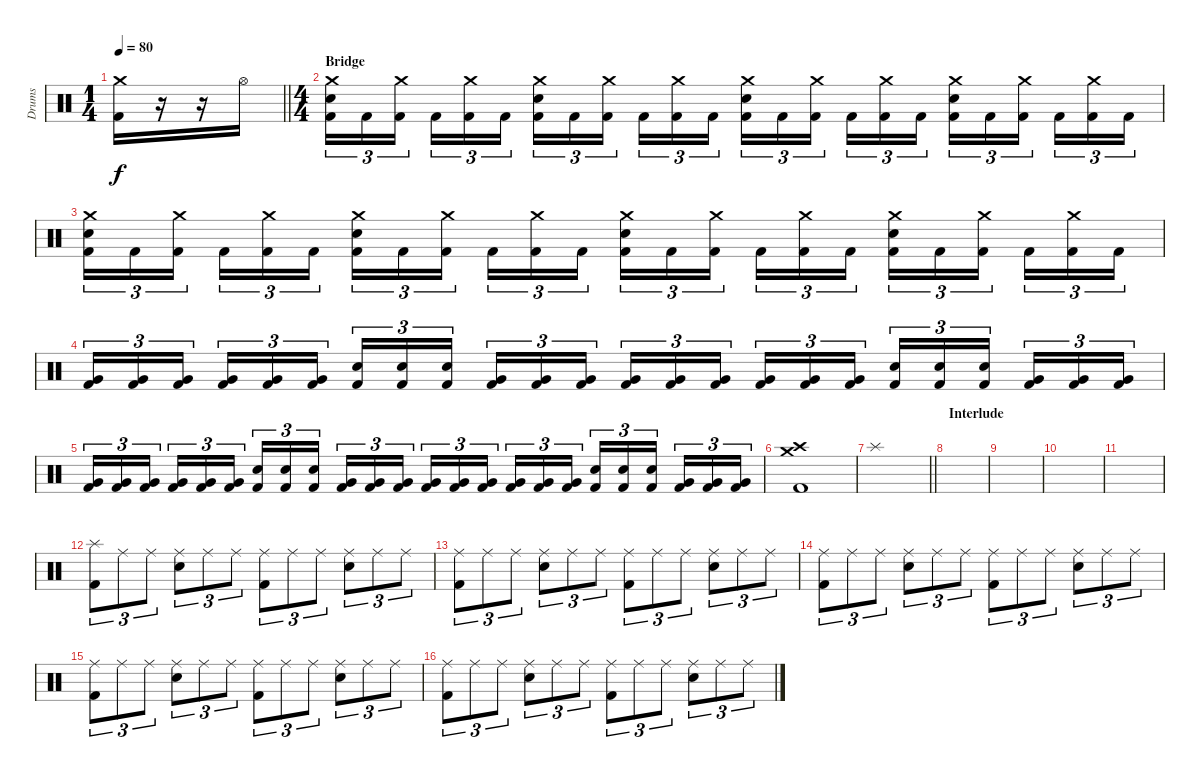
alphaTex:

\track ("Drums" "Drums") {instrument percussion}
\staff {score}
\articulation defaults
\ts (1 4)
\tempo 80
\clef neutral
\barLineRight lightlight
\ks c
("Crash medium (hit)" "Kick (hit) 2").16{dy f} r.16 r.16 "Hi-Hat (open)".16 |
\ts (4 4)
\section ("" "Bridge")
("Crash medium (hit)" "Electric Snare (hit)" "Kick (hit) 2").16{tu (3 2)} "Kick (hit) 2".16{tu (3 2)} ("Crash medium (hit)" "Kick (hit) 2").16{tu (3 2) beam splitsecondary} "Kick (hit) 2".16{tu (3 2)} ("Crash medium (hit)" "Kick (hit) 2").16{tu (3 2)} "Kick (hit) 2".16{tu (3 2)} ("Crash medium (hit)" "Electric Snare (hit)" "Kick (hit) 2").16{tu (3 2)} "Kick (hit) 2".16{tu (3 2)} ("Crash medium (hit)" "Kick (hit) 2").16{tu (3 2) beam splitsecondary} "Kick (hit) 2".16{tu (3 2)} ("Crash medium (hit)" "Kick (hit) 2").16{tu (3 2)} "Kick (hit) 2".16{tu (3 2)} ("Crash medium (hit)" "Electric Snare (hit)" "Kick (hit) 2").16{tu (3 2)} "Kick (hit) 2".16{tu (3 2)} ("Crash medium (hit)" "Kick (hit) 2").16{tu (3 2) beam splitsecondary} "Kick (hit) 2".16{tu (3 2)} ("Crash medium (hit)" "Kick (hit) 2").16{tu (3 2)} "Kick (hit) 2".16{tu (3 2)} ("Crash medium (hit)" "Electric Snare (hit)" "Kick (hit) 2").16{tu (3 2)} "Kick (hit) 2".16{tu (3 2)} ("Crash medium (hit)" "Kick (hit) 2").16{tu (3 2) beam splitsecondary} "Kick (hit) 2".16{tu (3 2)} ("Crash medium (hit)" "Kick (hit) 2").16{tu (3 2)} "Kick (hit) 2".16{tu (3 2)} |
("Crash medium (hit)" "Electric Snare (hit)" "Kick (hit) 2").16{tu (3 2)} "Kick (hit) 2".16{tu (3 2)} ("Crash medium (hit)" "Kick (hit) 2").16{tu (3 2) beam splitsecondary} "Kick (hit) 2".16{tu (3 2)} ("Crash medium (hit)" "Kick (hit) 2").16{tu (3 2)} "Kick (hit) 2".16{tu (3 2)} ("Crash medium (hit)" "Electric Snare (hit)" "Kick (hit) 2").16{tu (3 2)} "Kick (hit) 2".16{tu (3 2)} ("Crash medium (hit)" "Kick (hit) 2").16{tu (3 2) beam splitsecondary} "Kick (hit) 2".16{tu (3 2)} ("Crash medium (hit)" "Kick (hit) 2").16{tu (3 2)} "Kick (hit) 2".16{tu (3 2)} ("Crash medium (hit)" "Electric Snare (hit)" "Kick (hit) 2").16{tu (3 2)} "Kick (hit) 2".16{tu (3 2)} ("Crash medium (hit)" "Kick (hit) 2").16{tu (3 2) beam splitsecondary} "Kick (hit) 2".16{tu (3 2)} ("Crash medium (hit)" "Kick (hit) 2").16{tu (3 2)} "Kick (hit) 2".16{tu (3 2)} ("Crash medium (hit)" "Electric Snare (hit)" "Kick (hit) 2").16{tu (3 2)} "Kick (hit) 2".16{tu (3 2)} ("Crash medium (hit)" "Kick (hit) 2").16{tu (3 2) beam splitsecondary} "Kick (hit) 2".16{tu (3 2)} ("Crash medium (hit)" "Kick (hit) 2").16{tu (3 2)} "Kick (hit) 2".16{tu (3 2)} |
("Very Low Tom (hit)" "Kick (hit) 2").16{tu (3 2)} ("Very Low Tom (hit)" "Kick (hit) 2").16{tu (3 2)} ("Very Low Tom (hit)" "Kick (hit) 2").16{tu (3 2) beam splitsecondary} ("Very Low Tom (hit)" "Kick (hit) 2").16{tu (3 2)} ("Very Low Tom (hit)" "Kick (hit) 2").16{tu (3 2)} ("Very Low Tom (hit)" "Kick (hit) 2").16{tu (3 2)} ("Electric Snare (hit)" "Kick (hit) 2").16{tu (3 2)} ("Electric Snare (hit)" "Kick (hit) 2").16{tu (3 2)} ("Electric Snare (hit)" "Kick (hit) 2").16{tu (3 2) beam splitsecondary} ("Very Low Tom (hit)" "Kick (hit) 2").16{tu (3 2)} ("Very Low Tom (hit)" "Kick (hit) 2").16{tu (3 2)} ("Very Low Tom (hit)" "Kick (hit) 2").16{tu (3 2)} ("Very Low Tom (hit)" "Kick (hit) 2").16{tu (3 2)} ("Very Low Tom (hit)" "Kick (hit) 2").16{tu (3 2)} ("Very Low Tom (hit)" "Kick (hit) 2").16{tu (3 2) beam splitsecondary} ("Very Low Tom (hit)" "Kick (hit) 2").16{tu (3 2)} ("Very Low Tom (hit)" "Kick (hit) 2").16{tu (3 2)} ("Very Low Tom (hit)" "Kick (hit) 2").16{tu (3 2)} ("Electric Snare (hit)" "Kick (hit) 2").16{tu (3 2)} ("Electric Snare (hit)" "Kick (hit) 2").16{tu (3 2)} ("Electric Snare (hit)" "Kick (hit) 2").16{tu (3 2) beam splitsecondary} ("Very Low Tom (hit)" "Kick (hit) 2").16{tu (3 2)} ("Very Low Tom (hit)" "Kick (hit) 2").16{tu (3 2)} ("Very Low Tom (hit)" "Kick (hit) 2").16{tu (3 2)} |
("Very Low Tom (hit)" "Kick (hit) 2").16{tu (3 2)} ("Very Low Tom (hit)" "Kick (hit) 2").16{tu (3 2)} ("Very Low Tom (hit)" "Kick (hit) 2").16{tu (3 2) beam splitsecondary} ("Very Low Tom (hit)" "Kick (hit) 2").16{tu (3 2)} ("Very Low Tom (hit)" "Kick (hit) 2").16{tu (3 2)} ("Very Low Tom (hit)" "Kick (hit) 2").16{tu (3 2)} ("Electric Snare (hit)" "Kick (hit) 2").16{tu (3 2)} ("Electric Snare (hit)" "Kick (hit) 2").16{tu (3 2)} ("Electric Snare (hit)" "Kick (hit) 2").16{tu (3 2) beam splitsecondary} ("Very Low Tom (hit)" "Kick (hit) 2").16{tu (3 2)} ("Very Low Tom (hit)" "Kick (hit) 2").16{tu (3 2)} ("Very Low Tom (hit)" "Kick (hit) 2").16{tu (3 2)} ("Very Low Tom (hit)" "Kick (hit) 2").16{tu (3 2)} ("Very Low Tom (hit)" "Kick (hit) 2").16{tu (3 2)} ("Very Low Tom (hit)" "Kick (hit) 2").16{tu (3 2) beam splitsecondary} ("Very Low Tom (hit)" "Kick (hit) 2").16{tu (3 2)} ("Very Low Tom (hit)" "Kick (hit) 2").16{tu (3 2)} ("Very Low Tom (hit)" "Kick (hit) 2").16{tu (3 2)} ("Electric Snare (hit)" "Kick (hit) 2").16{tu (3 2)} ("Electric Snare (hit)" "Kick (hit) 2").16{tu (3 2)} ("Electric Snare (hit)" "Kick (hit) 2").16{tu (3 2) beam splitsecondary} ("Very Low Tom (hit)" "Kick (hit) 2").16{tu (3 2)} ("Very Low Tom (hit)" "Kick (hit) 2").16{tu (3 2)} ("Very Low Tom (hit)" "Kick (hit) 2").16{tu (3 2)} |
("Crash medium (hit)" "Crash high (hit)" "Kick (hit) 2").1 |
\barLineRight lightlight "Splash (hit)".1
|
\section ("" "Interlude")
|
|
|
|
("Splash (hit)" "Kick (hit) 2").8{tu (3 2)} "Ride (middle)".8{tu (3 2)} "Ride (middle)".8{tu (3 2)} ("Ride (middle)" "Electric Snare (hit)").8{tu (3 2)} "Ride (middle)".8{tu (3 2)} "Ride (middle)".8{tu (3 2)} ("Ride (middle)" "Kick (hit) 2").8{tu (3 2)} "Ride (middle)".8{tu (3 2)} "Ride (middle)".8{tu (3 2)} ("Ride (middle)" "Electric Snare (hit)").8{tu (3 2)} "Ride (middle)".8{tu (3 2)} "Ride (middle)".8{tu (3 2)} |
("Ride (middle)" "Kick (hit) 2").8{tu (3 2)} "Ride (middle)".8{tu (3 2)} "Ride (middle)".8{tu (3 2)} ("Ride (middle)" "Electric Snare (hit)").8{tu (3 2)} "Ride (middle)".8{tu (3 2)} "Ride (middle)".8{tu (3 2)} ("Ride (middle)" "Kick (hit) 2").8{tu (3 2)} "Ride (middle)".8{tu (3 2)} "Ride (middle)".8{tu (3 2)} ("Ride (middle)" "Electric Snare (hit)").8{tu (3 2)} "Ride (middle)".8{tu (3 2)} "Ride (middle)".8{tu (3 2)} |
("Ride (middle)" "Kick (hit) 2").8{tu (3 2)} "Ride (middle)".8{tu (3 2)} "Ride (middle)".8{tu (3 2)} ("Ride (middle)" "Electric Snare (hit)").8{tu (3 2)} "Ride (middle)".8{tu (3 2)} "Ride (middle)".8{tu (3 2)} ("Ride (middle)" "Kick (hit) 2").8{tu (3 2)} "Ride (middle)".8{tu (3 2)} "Ride (middle)".8{tu (3 2)} ("Ride (middle)" "Electric Snare (hit)").8{tu (3 2)} "Ride (middle)".8{tu (3 2)} "Ride (middle)".8{tu (3 2)} |
("Ride (middle)" "Kick (hit) 2").8{tu (3 2)} "Ride (middle)".8{tu (3 2)} "Ride (middle)".8{tu (3 2)} ("Ride (middle)" "Electric Snare (hit)").8{tu (3 2)} "Ride (middle)".8{tu (3 2)} "Ride (middle)".8{tu (3 2)} ("Ride (middle)" "Kick (hit) 2").8{tu (3 2)} "Ride (middle)".8{tu (3 2)} "Ride (middle)".8{tu (3 2)} ("Ride (middle)" "Electric Snare (hit)").8{tu (3 2)} "Ride (middle)".8{tu (3 2)} "Ride (middle)".8{tu (3 2)} |
("Ride (middle)" "Kick (hit) 2").8{tu (3 2)} "Ride (middle)".8{tu (3 2)} "Ride (middle)".8{tu (3 2)} ("Ride (middle)" "Electric Snare (hit)").8{tu (3 2)} "Ride (middle)".8{tu (3 2)} "Ride (middle)".8{tu (3 2)} ("Ride (middle)" "Kick (hit) 2").8{tu (3 2)} "Ride (middle)".8{tu (3 2)} "Ride (middle)".8{tu (3 2)} ("Ride (middle)" "Electric Snare (hit)").8{tu (3 2)} "Ride (middle)".8{tu (3 2)} "Ride (middle)".8{tu (3 2)}
